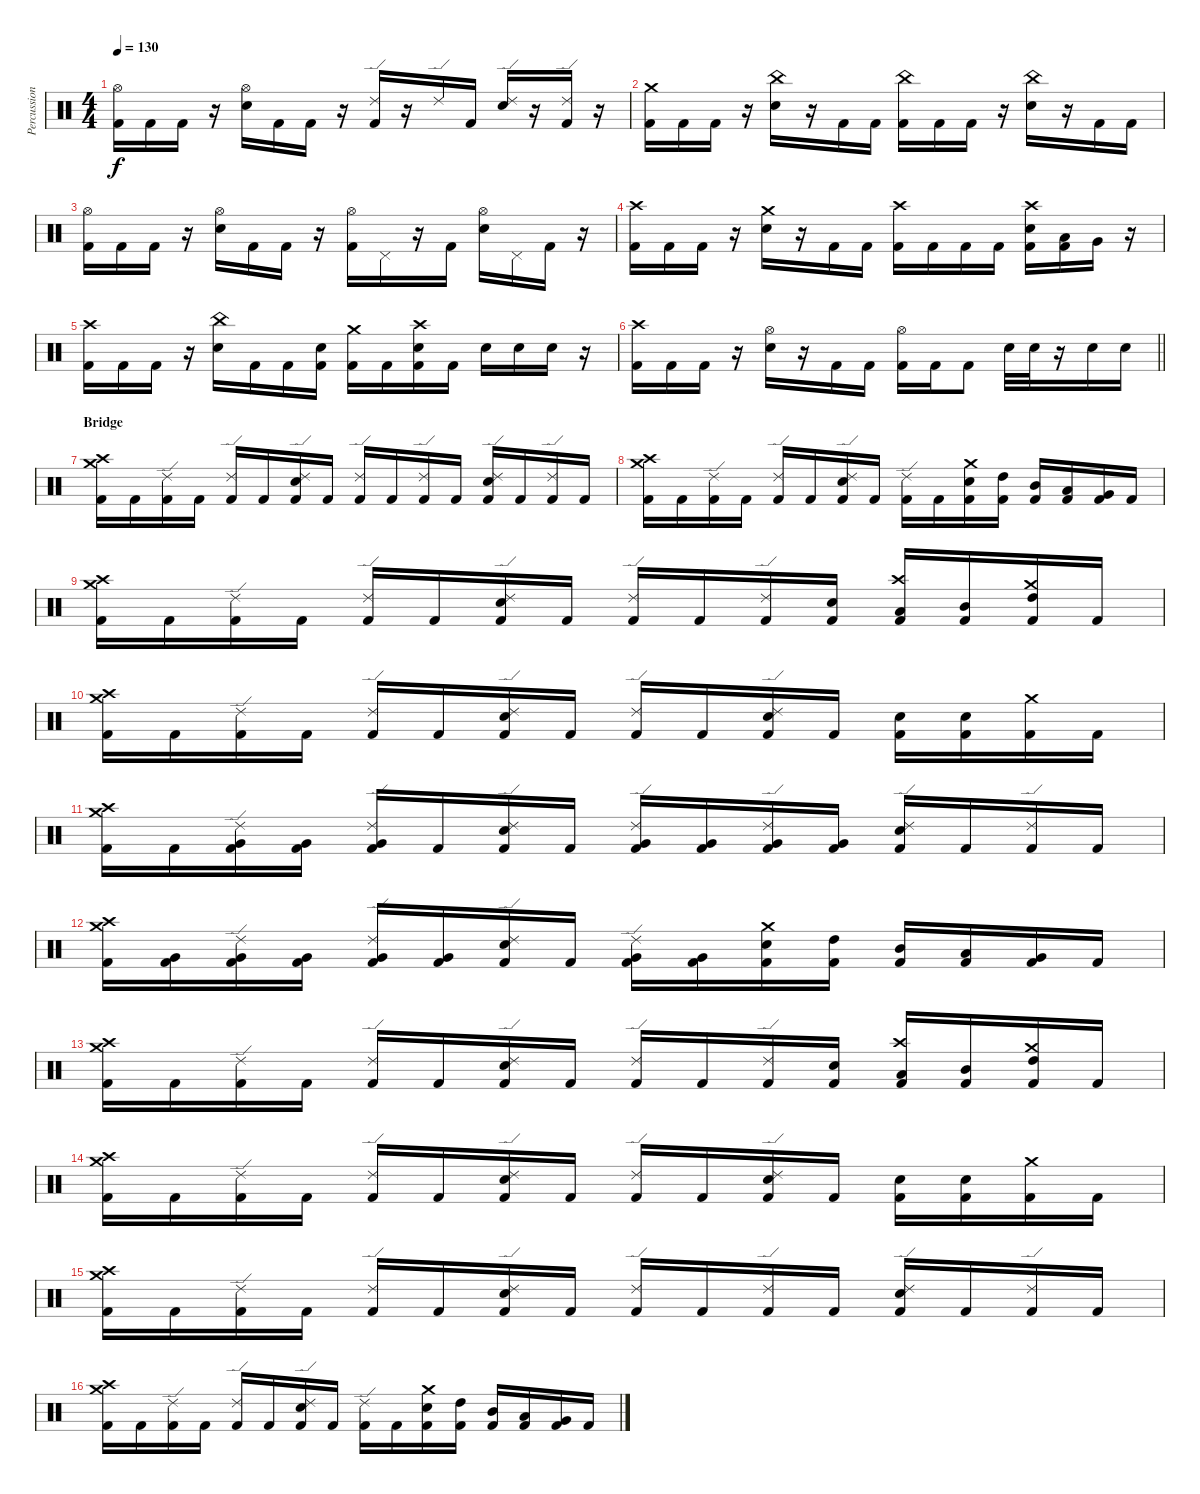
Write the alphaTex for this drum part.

\track ("Percussion" "Percussion") {instrument percussion}
\staff {score}
\articulation defaults
\ts (4 4)
\tempo 130
\clef neutral
\ks c
("Hi-Hat (open)" "Kick (hit) 2").16{dy f} "Kick (hit) 2".16 "Kick (hit) 2".16 r.16 ("Hi-Hat (open)" "Electric Snare (hit)").16 "Kick (hit) 2".16 "Kick (hit) 2".16 r.16 ("Ride (edge) 2" "Kick (hit) 2").16 r.16 "Ride (edge) 2".16 "Kick (hit) 2".16 ("Ride (edge) 2" "Electric Snare (hit)").16 r.16 ("Ride (edge) 2" "Kick (hit) 2").16 r.16 |
("Crash medium (hit)" "Kick (hit) 2").16 "Kick (hit) 2".16 "Kick (hit) 2".16 r.16 ("China (hit)" "Electric Snare (hit)").16 r.16 "Kick (hit) 2".16 "Kick (hit) 2".16 ("China (hit)" "Kick (hit) 2").16 "Kick (hit) 2".16 "Kick (hit) 2".16 r.16 ("China (hit)" "Electric Snare (hit)").16 r.16 "Kick (hit) 2".16 "Kick (hit) 2".16 |
("Hi-Hat (open)" "Kick (hit) 2").16 "Kick (hit) 2".16 "Kick (hit) 2".16 r.16 ("Hi-Hat (open)" "Electric Snare (hit)").16 "Kick (hit) 2".16 "Kick (hit) 2".16 r.16 ("Hi-Hat (open)" "Kick (hit) 2").16 "Pedal Hi-Hat (hit)".16 r.16 "Kick (hit) 2".16 ("Hi-Hat (open)" "Electric Snare (hit)").16 "Pedal Hi-Hat (hit)".16 "Kick (hit) 2".16 r.16 |
("Crash high (hit)" "Kick (hit) 2").16 "Kick (hit) 2".16 "Kick (hit) 2".16 r.16 ("Crash medium (hit)" "Electric Snare (hit)").16 r.16 "Kick (hit) 2".16 "Kick (hit) 2".16 ("Crash high (hit)" "Kick (hit) 2").16 "Kick (hit) 2".16 "Kick (hit) 2".16 "Kick (hit) 2".16 ("Crash high (hit)" "Electric Snare (hit)" "Kick (hit) 2").16 ("Low Tom (hit)" "Kick (hit) 2").16 "Very Low Tom (hit)".16 r.16 |
("Crash high (hit)" "Kick (hit) 2").16 "Kick (hit) 2".16 "Kick (hit) 2".16 r.16 ("China (hit)" "Electric Snare (hit)").16 "Kick (hit) 2".16 "Kick (hit) 2".16 ("Electric Snare (hit)" "Kick (hit) 2").16 ("Crash medium (hit)" "Kick (hit) 2").16 "Kick (hit) 2".16 ("Crash high (hit)" "Electric Snare (hit)" "Kick (hit) 2").16 "Kick (hit) 2".16 "Electric Snare (hit)".16 "Electric Snare (hit)".16 "Electric Snare (hit)".16 r.16 |
\barLineRight lightlight
("Crash high (hit)" "Kick (hit) 2").16 "Kick (hit) 2".16 "Kick (hit) 2".16 r.16 ("Hi-Hat (open)" "Electric Snare (hit)").16 r.16 "Kick (hit) 2".16 "Kick (hit) 2".16 ("Hi-Hat (open)" "Kick (hit) 2").16 "Kick (hit) 2".16 "Kick (hit) 2".8 "Electric Snare (hit)".32 "Electric Snare (hit)".32 r.16 "Electric Snare (hit)".16 "Electric Snare (hit)".16 |
\section ("" "Bridge")
("Crash medium (hit)" "Crash high (hit)" "Kick (hit) 2").16 "Kick (hit) 2".16 ("Ride (edge) 2" "Kick (hit) 2").16 "Kick (hit) 2".16 ("Ride (edge) 2" "Kick (hit) 2").16 "Kick (hit) 2".16 ("Ride (edge) 2" "Electric Snare (hit)" "Kick (hit) 2").16 "Kick (hit) 2".16 ("Ride (edge) 2" "Kick (hit) 2").16 "Kick (hit) 2".16 ("Ride (edge) 2" "Kick (hit) 2").16 "Kick (hit) 2".16 ("Ride (edge) 2" "Electric Snare (hit)" "Kick (hit) 2").16 "Kick (hit) 2".16 ("Ride (edge) 2" "Kick (hit) 2").16 "Kick (hit) 2".16 |
("Crash medium (hit)" "Crash high (hit)" "Kick (hit) 2").16 "Kick (hit) 2".16 ("Ride (edge) 2" "Kick (hit) 2").16 "Kick (hit) 2".16 ("Ride (edge) 2" "Kick (hit) 2").16 "Kick (hit) 2".16 ("Ride (edge) 2" "Electric Snare (hit)" "Kick (hit) 2").16 "Kick (hit) 2".16 ("Ride (edge) 2" "Kick (hit) 2").16 "Kick (hit) 2".16 ("Crash medium (hit)" "Electric Snare (hit)" "Kick (hit) 2").16 ("High Tom (hit)" "Kick (hit) 2").16 ("Mid Tom (hit)" "Kick (hit) 2").16 ("Low Tom (hit)" "Kick (hit) 2").16 ("Very Low Tom (hit)" "Kick (hit) 2").16 "Kick (hit) 2".16 |
("Crash medium (hit)" "Crash high (hit)" "Kick (hit) 2").16 "Kick (hit) 2".16 ("Ride (edge) 2" "Kick (hit) 2").16 "Kick (hit) 2".16 ("Ride (edge) 2" "Kick (hit) 2").16 "Kick (hit) 2".16 ("Ride (edge) 2" "Electric Snare (hit)" "Kick (hit) 2").16 "Kick (hit) 2".16 ("Ride (edge) 2" "Kick (hit) 2").16 "Kick (hit) 2".16 ("Ride (edge) 2" "Kick (hit) 2").16 ("Electric Snare (hit)" "Kick (hit) 2").16 ("Crash high (hit)" "Low Tom (hit)" "Kick (hit) 2").16 ("Mid Tom (hit)" "Kick (hit) 2").16 ("Crash medium (hit)" "High Tom (hit)" "Kick (hit) 2").16 "Kick (hit) 2".16 |
("Crash medium (hit)" "Crash high (hit)" "Kick (hit) 2").16 "Kick (hit) 2".16 ("Ride (edge) 2" "Kick (hit) 2").16 "Kick (hit) 2".16 ("Ride (edge) 2" "Kick (hit) 2").16 "Kick (hit) 2".16 ("Ride (edge) 2" "Electric Snare (hit)" "Kick (hit) 2").16 "Kick (hit) 2".16 ("Ride (edge) 2" "Kick (hit) 2").16 "Kick (hit) 2".16 ("Ride (edge) 2" "Electric Snare (hit)" "Kick (hit) 2").16 "Kick (hit) 2".16 ("Electric Snare (hit)" "Kick (hit) 2").16 ("Electric Snare (hit)" "Kick (hit) 2").16 ("Crash medium (hit)" "Kick (hit) 2").16 "Kick (hit) 2".16 |
("Crash medium (hit)" "Crash high (hit)" "Kick (hit) 2").16 "Kick (hit) 2".16 ("Ride (edge) 2" "Very Low Tom (hit)" "Kick (hit) 2").16 ("Very Low Tom (hit)" "Kick (hit) 2").16 ("Ride (edge) 2" "Very Low Tom (hit)" "Kick (hit) 2").16 "Kick (hit) 2".16 ("Ride (edge) 2" "Electric Snare (hit)" "Kick (hit) 2").16 "Kick (hit) 2".16 ("Ride (edge) 2" "Very Low Tom (hit)" "Kick (hit) 2").16 ("Very Low Tom (hit)" "Kick (hit) 2").16 ("Ride (edge) 2" "Very Low Tom (hit)" "Kick (hit) 2").16 ("Very Low Tom (hit)" "Kick (hit) 2").16 ("Ride (edge) 2" "Electric Snare (hit)" "Kick (hit) 2").16 "Kick (hit) 2".16 ("Ride (edge) 2" "Kick (hit) 2").16 "Kick (hit) 2".16 |
("Crash medium (hit)" "Crash high (hit)" "Kick (hit) 2").16 ("Very Low Tom (hit)" "Kick (hit) 2").16 ("Ride (edge) 2" "Very Low Tom (hit)" "Kick (hit) 2").16 ("Very Low Tom (hit)" "Kick (hit) 2").16 ("Ride (edge) 2" "Very Low Tom (hit)" "Kick (hit) 2").16 ("Very Low Tom (hit)" "Kick (hit) 2").16 ("Ride (edge) 2" "Electric Snare (hit)" "Kick (hit) 2").16 "Kick (hit) 2".16 ("Ride (edge) 2" "Very Low Tom (hit)" "Kick (hit) 2").16 ("Very Low Tom (hit)" "Kick (hit) 2").16 ("Crash medium (hit)" "Electric Snare (hit)" "Kick (hit) 2").16 ("High Tom (hit)" "Kick (hit) 2").16 ("Mid Tom (hit)" "Kick (hit) 2").16 ("Low Tom (hit)" "Kick (hit) 2").16 ("Very Low Tom (hit)" "Kick (hit) 2").16 "Kick (hit) 2".16 |
("Crash medium (hit)" "Crash high (hit)" "Kick (hit) 2").16 "Kick (hit) 2".16 ("Ride (edge) 2" "Kick (hit) 2").16 "Kick (hit) 2".16 ("Ride (edge) 2" "Kick (hit) 2").16 "Kick (hit) 2".16 ("Ride (edge) 2" "Electric Snare (hit)" "Kick (hit) 2").16 "Kick (hit) 2".16 ("Ride (edge) 2" "Kick (hit) 2").16 "Kick (hit) 2".16 ("Ride (edge) 2" "Kick (hit) 2").16 ("Electric Snare (hit)" "Kick (hit) 2").16 ("Crash high (hit)" "Low Tom (hit)" "Kick (hit) 2").16 ("Mid Tom (hit)" "Kick (hit) 2").16 ("Crash medium (hit)" "High Tom (hit)" "Kick (hit) 2").16 "Kick (hit) 2".16 |
("Crash medium (hit)" "Crash high (hit)" "Kick (hit) 2").16 "Kick (hit) 2".16 ("Ride (edge) 2" "Kick (hit) 2").16 "Kick (hit) 2".16 ("Ride (edge) 2" "Kick (hit) 2").16 "Kick (hit) 2".16 ("Ride (edge) 2" "Electric Snare (hit)" "Kick (hit) 2").16 "Kick (hit) 2".16 ("Ride (edge) 2" "Kick (hit) 2").16 "Kick (hit) 2".16 ("Ride (edge) 2" "Electric Snare (hit)" "Kick (hit) 2").16 "Kick (hit) 2".16 ("Electric Snare (hit)" "Kick (hit) 2").16 ("Electric Snare (hit)" "Kick (hit) 2").16 ("Crash medium (hit)" "Kick (hit) 2").16 "Kick (hit) 2".16 |
("Crash medium (hit)" "Crash high (hit)" "Kick (hit) 2").16 "Kick (hit) 2".16 ("Ride (edge) 2" "Kick (hit) 2").16 "Kick (hit) 2".16 ("Ride (edge) 2" "Kick (hit) 2").16 "Kick (hit) 2".16 ("Ride (edge) 2" "Electric Snare (hit)" "Kick (hit) 2").16 "Kick (hit) 2".16 ("Ride (edge) 2" "Kick (hit) 2").16 "Kick (hit) 2".16 ("Ride (edge) 2" "Kick (hit) 2").16 "Kick (hit) 2".16 ("Ride (edge) 2" "Electric Snare (hit)" "Kick (hit) 2").16 "Kick (hit) 2".16 ("Ride (edge) 2" "Kick (hit) 2").16 "Kick (hit) 2".16 |
("Crash medium (hit)" "Crash high (hit)" "Kick (hit) 2").16 "Kick (hit) 2".16 ("Ride (edge) 2" "Kick (hit) 2").16 "Kick (hit) 2".16 ("Ride (edge) 2" "Kick (hit) 2").16 "Kick (hit) 2".16 ("Ride (edge) 2" "Electric Snare (hit)" "Kick (hit) 2").16 "Kick (hit) 2".16 ("Ride (edge) 2" "Kick (hit) 2").16 "Kick (hit) 2".16 ("Crash medium (hit)" "Electric Snare (hit)" "Kick (hit) 2").16 ("High Tom (hit)" "Kick (hit) 2").16 ("Mid Tom (hit)" "Kick (hit) 2").16 ("Low Tom (hit)" "Kick (hit) 2").16 ("Very Low Tom (hit)" "Kick (hit) 2").16 "Kick (hit) 2".16
